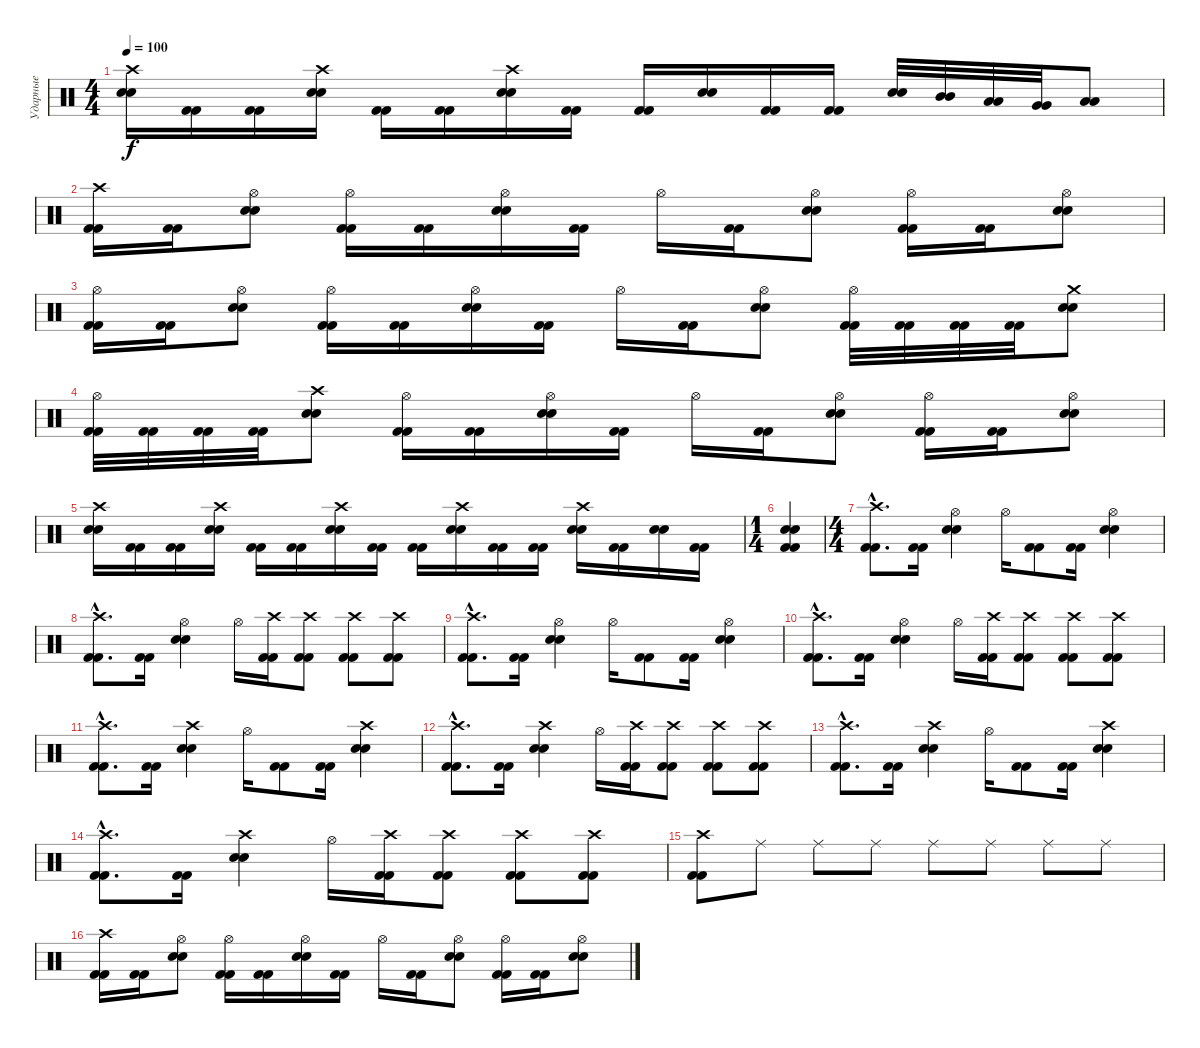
\track ("Ударные" "Ударные") {instrument percussion}
\staff {score}
\articulation defaults
\ts (4 4)
\tempo 100
\clef neutral
\ks c
("Crash high (hit)" "Electric Snare (hit)" "Electric Snare (hit)").16{dy f} ("Kick (hit) 2" "Kick (hit) 2").16 ("Kick (hit) 2" "Kick (hit) 2").16 ("Crash high (hit)" "Electric Snare (hit)" "Electric Snare (hit)").16 ("Kick (hit) 2" "Kick (hit) 2").16 ("Kick (hit) 2" "Kick (hit) 2").16 ("Crash high (hit)" "Electric Snare (hit)" "Electric Snare (hit)").16 ("Kick (hit) 2" "Kick (hit) 2").16 ("Kick (hit) 2" "Kick (hit) 2").16 ("Electric Snare (hit)" "Electric Snare (hit)").16 ("Kick (hit) 2" "Kick (hit) 2").16 ("Kick (hit) 2" "Kick (hit) 2").16 ("Electric Snare (hit)" "Electric Snare (hit)").32 ("Mid Tom (hit)" "Mid Tom (hit)").32 ("Low Tom (hit)" "Low Tom (hit)").32 ("Very Low Tom (hit)" "Very Low Tom (hit)").32 ("Low Floor Tom (hit)" "Low Floor Tom (hit)").8 |
("Crash high (hit)" "Kick (hit) 2" "Kick (hit) 2").16 ("Kick (hit) 2" "Kick (hit) 2").16 ("Hi-Hat (open)" "Electric Snare (hit)" "Electric Snare (hit)").8 ("Hi-Hat (open)" "Kick (hit) 2" "Kick (hit) 2").16 ("Kick (hit) 2" "Kick (hit) 2").16 ("Hi-Hat (open)" "Electric Snare (hit)" "Electric Snare (hit)").16 ("Kick (hit) 2" "Kick (hit) 2").16 "Hi-Hat (open)".16 ("Kick (hit) 2" "Kick (hit) 2").16 ("Hi-Hat (open)" "Electric Snare (hit)" "Electric Snare (hit)").8 ("Hi-Hat (open)" "Kick (hit) 2" "Kick (hit) 2").16 ("Kick (hit) 2" "Kick (hit) 2").16 ("Hi-Hat (open)" "Electric Snare (hit)" "Electric Snare (hit)").8 |
("Hi-Hat (open)" "Kick (hit) 2" "Kick (hit) 2").16 ("Kick (hit) 2" "Kick (hit) 2").16 ("Hi-Hat (open)" "Electric Snare (hit)" "Electric Snare (hit)").8 ("Hi-Hat (open)" "Kick (hit) 2" "Kick (hit) 2").16 ("Kick (hit) 2" "Kick (hit) 2").16 ("Hi-Hat (open)" "Electric Snare (hit)" "Electric Snare (hit)").16 ("Kick (hit) 2" "Kick (hit) 2").16 "Hi-Hat (open)".16 ("Kick (hit) 2" "Kick (hit) 2").16 ("Hi-Hat (open)" "Electric Snare (hit)" "Electric Snare (hit)").8 ("Hi-Hat (open)" "Kick (hit) 2" "Kick (hit) 2").32 ("Kick (hit) 2" "Kick (hit) 2").32 ("Kick (hit) 2" "Kick (hit) 2").32 ("Kick (hit) 2" "Kick (hit) 2").32 ("Crash medium (hit)" "Electric Snare (hit)" "Electric Snare (hit)").8 |
("Hi-Hat (open)" "Kick (hit) 2" "Kick (hit) 2").32 ("Kick (hit) 2" "Kick (hit) 2").32 ("Kick (hit) 2" "Kick (hit) 2").32 ("Kick (hit) 2" "Kick (hit) 2").32 ("Crash high (hit)" "Electric Snare (hit)" "Electric Snare (hit)").8 ("Hi-Hat (open)" "Kick (hit) 2" "Kick (hit) 2").16 ("Kick (hit) 2" "Kick (hit) 2").16 ("Hi-Hat (open)" "Electric Snare (hit)" "Electric Snare (hit)").16 ("Kick (hit) 2" "Kick (hit) 2").16 "Hi-Hat (open)".16 ("Kick (hit) 2" "Kick (hit) 2").16 ("Hi-Hat (open)" "Electric Snare (hit)" "Electric Snare (hit)").8 ("Hi-Hat (open)" "Kick (hit) 2" "Kick (hit) 2").16 ("Kick (hit) 2" "Kick (hit) 2").16 ("Hi-Hat (open)" "Electric Snare (hit)" "Electric Snare (hit)").8 |
("Crash high (hit)" "Electric Snare (hit)" "Electric Snare (hit)").16 ("Kick (hit) 2" "Kick (hit) 2").16 ("Kick (hit) 2" "Kick (hit) 2").16 ("Crash high (hit)" "Electric Snare (hit)" "Electric Snare (hit)").16 ("Kick (hit) 2" "Kick (hit) 2").16 ("Kick (hit) 2" "Kick (hit) 2").16 ("Crash high (hit)" "Electric Snare (hit)" "Electric Snare (hit)").16 ("Kick (hit) 2" "Kick (hit) 2").16 ("Kick (hit) 2" "Kick (hit) 2").16 ("Crash high (hit)" "Electric Snare (hit)" "Electric Snare (hit)").16 ("Kick (hit) 2" "Kick (hit) 2").16 ("Kick (hit) 2" "Kick (hit) 2").16 ("Crash high (hit)" "Electric Snare (hit)" "Electric Snare (hit)").16 ("Kick (hit) 2" "Kick (hit) 2").16 ("Electric Snare (hit)" "Electric Snare (hit)").16 ("Kick (hit) 2" "Kick (hit) 2").16 |
\ts (1 4)
("Electric Snare (hit)" "Electric Snare (hit)" "Kick (hit) 2" "Kick (hit) 2").4 |
\ts (4 4)
("Crash high (hit)"{hac} "Kick (hit) 2"{hac} "Kick (hit) 2"{hac}).8{d} ("Kick (hit) 2" "Kick (hit) 2").16 ("Hi-Hat (open)" "Electric Snare (hit)" "Electric Snare (hit)").4 "Hi-Hat (open)".16 ("Kick (hit) 2" "Kick (hit) 2").8 ("Kick (hit) 2" "Kick (hit) 2").16 ("Hi-Hat (open)" "Electric Snare (hit)" "Electric Snare (hit)").4 |
("Crash high (hit)"{hac} "Kick (hit) 2"{hac} "Kick (hit) 2"{hac}).8{d} ("Kick (hit) 2" "Kick (hit) 2").16 ("Hi-Hat (open)" "Electric Snare (hit)" "Electric Snare (hit)").4 "Hi-Hat (open)".16 ("Crash high (hit)" "Kick (hit) 2" "Kick (hit) 2").16 ("Crash high (hit)" "Kick (hit) 2" "Kick (hit) 2").8 ("Crash high (hit)" "Kick (hit) 2" "Kick (hit) 2").8 ("Crash high (hit)" "Kick (hit) 2" "Kick (hit) 2").8 |
("Crash high (hit)"{hac} "Kick (hit) 2"{hac} "Kick (hit) 2"{hac}).8{d} ("Kick (hit) 2" "Kick (hit) 2").16 ("Hi-Hat (open)" "Electric Snare (hit)" "Electric Snare (hit)").4 "Hi-Hat (open)".16 ("Kick (hit) 2" "Kick (hit) 2").8 ("Kick (hit) 2" "Kick (hit) 2").16 ("Hi-Hat (open)" "Electric Snare (hit)" "Electric Snare (hit)").4 |
("Crash high (hit)"{hac} "Kick (hit) 2"{hac} "Kick (hit) 2"{hac}).8{d} ("Kick (hit) 2" "Kick (hit) 2").16 ("Hi-Hat (open)" "Electric Snare (hit)" "Electric Snare (hit)").4 "Hi-Hat (open)".16 ("Crash high (hit)" "Kick (hit) 2" "Kick (hit) 2").16 ("Crash high (hit)" "Kick (hit) 2" "Kick (hit) 2").8 ("Crash high (hit)" "Kick (hit) 2" "Kick (hit) 2").8 ("Crash high (hit)" "Kick (hit) 2" "Kick (hit) 2").8 |
("Crash high (hit)"{hac} "Kick (hit) 2"{hac} "Kick (hit) 2"{hac}).8{d} ("Kick (hit) 2" "Kick (hit) 2").16 ("Crash high (hit)" "Electric Snare (hit)" "Electric Snare (hit)").4 "Hi-Hat (open)".16 ("Kick (hit) 2" "Kick (hit) 2").8 ("Kick (hit) 2" "Kick (hit) 2").16 ("Crash high (hit)" "Electric Snare (hit)" "Electric Snare (hit)").4 |
("Crash high (hit)"{hac} "Kick (hit) 2"{hac} "Kick (hit) 2"{hac}).8{d} ("Kick (hit) 2" "Kick (hit) 2").16 ("Crash high (hit)" "Electric Snare (hit)" "Electric Snare (hit)").4 "Hi-Hat (open)".16 ("Crash high (hit)" "Kick (hit) 2" "Kick (hit) 2").16 ("Crash high (hit)" "Kick (hit) 2" "Kick (hit) 2").8 ("Crash high (hit)" "Kick (hit) 2" "Kick (hit) 2").8 ("Crash high (hit)" "Kick (hit) 2" "Kick (hit) 2").8 |
("Crash high (hit)"{hac} "Kick (hit) 2"{hac} "Kick (hit) 2"{hac}).8{d} ("Kick (hit) 2" "Kick (hit) 2").16 ("Crash high (hit)" "Electric Snare (hit)" "Electric Snare (hit)").4 "Hi-Hat (open)".16 ("Kick (hit) 2" "Kick (hit) 2").8 ("Kick (hit) 2" "Kick (hit) 2").16 ("Crash high (hit)" "Electric Snare (hit)" "Electric Snare (hit)").4 |
("Crash high (hit)"{hac} "Kick (hit) 2"{hac} "Kick (hit) 2"{hac}).8{d} ("Kick (hit) 2" "Kick (hit) 2").16 ("Crash high (hit)" "Electric Snare (hit)" "Electric Snare (hit)").4 "Hi-Hat (open)".16 ("Crash high (hit)" "Kick (hit) 2" "Kick (hit) 2").16 ("Crash high (hit)" "Kick (hit) 2" "Kick (hit) 2").8 ("Crash high (hit)" "Kick (hit) 2" "Kick (hit) 2").8 ("Crash high (hit)" "Kick (hit) 2" "Kick (hit) 2").8 |
("Crash high (hit)" "Kick (hit) 2" "Kick (hit) 2").8 "Ride (middle)".8 "Ride (middle)".8 "Ride (middle)".8 "Ride (middle)".8 "Ride (middle)".8 "Ride (middle)".8 "Ride (middle)".8 |
("Crash high (hit)" "Kick (hit) 2" "Kick (hit) 2").16 ("Kick (hit) 2" "Kick (hit) 2").16 ("Hi-Hat (open)" "Electric Snare (hit)" "Electric Snare (hit)").8 ("Hi-Hat (open)" "Kick (hit) 2" "Kick (hit) 2").16 ("Kick (hit) 2" "Kick (hit) 2").16 ("Hi-Hat (open)" "Electric Snare (hit)" "Electric Snare (hit)").16 ("Kick (hit) 2" "Kick (hit) 2").16 "Hi-Hat (open)".16 ("Kick (hit) 2" "Kick (hit) 2").16 ("Hi-Hat (open)" "Electric Snare (hit)" "Electric Snare (hit)").8 ("Hi-Hat (open)" "Kick (hit) 2" "Kick (hit) 2").16 ("Kick (hit) 2" "Kick (hit) 2").16 ("Hi-Hat (open)" "Electric Snare (hit)" "Electric Snare (hit)").8
